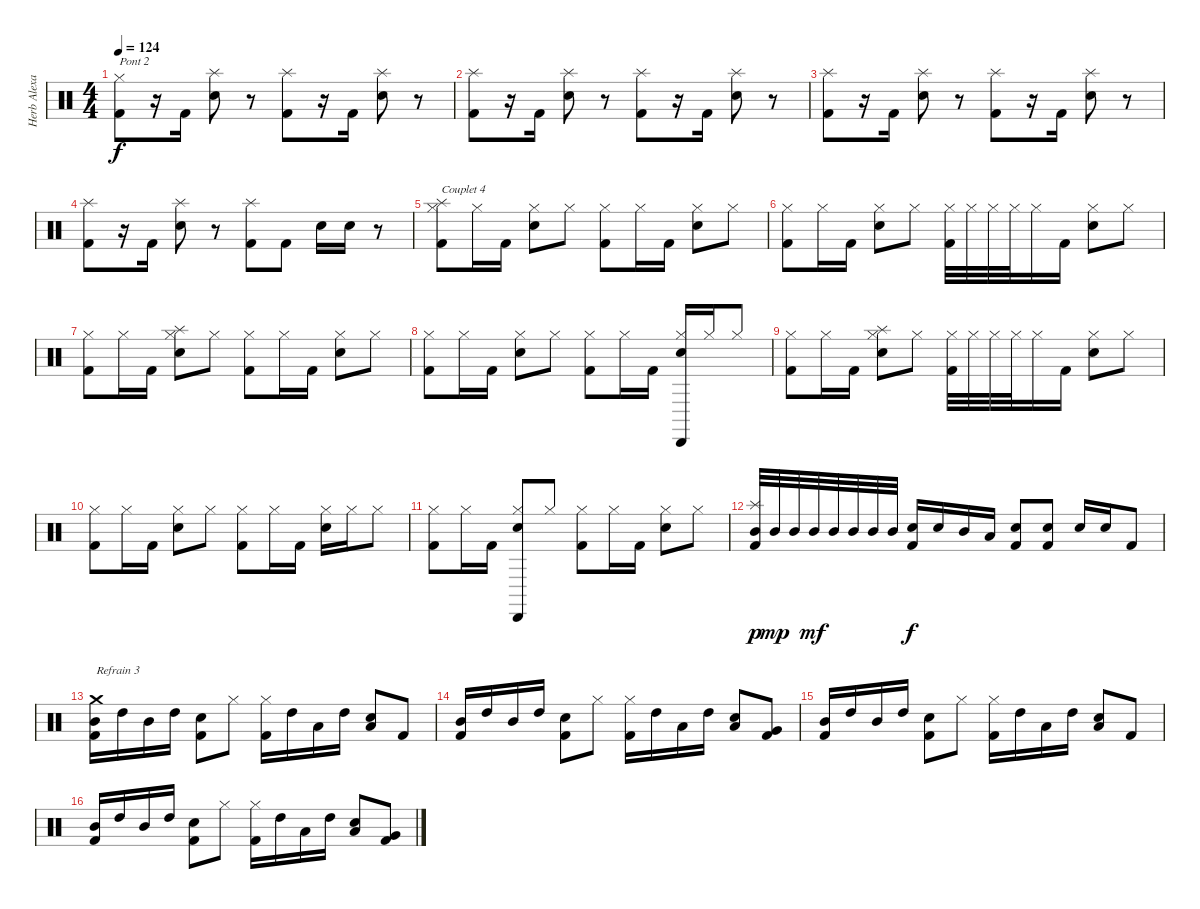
\track ("Herb Alexander" "Herb Alexa") {instrument percussion}
\staff {score}
\articulation defaults
\ts (4 4)
\tempo 124
\clef neutral
\ks c
("Hi-Hat (closed)" "Kick (hit) 2").8{txt "Pont 2" dy f} r.16 "Kick (hit) 2".16 ("Splash (hit)" "Electric Snare (hit)").8 r.8 ("Splash (hit)" "Kick (hit) 2").8 r.16 "Kick (hit) 2".16 ("Splash (hit)" "Electric Snare (hit)").8 r.8 |
("Splash (hit)" "Kick (hit) 2").8 r.16 "Kick (hit) 2".16 ("Splash (hit)" "Electric Snare (hit)").8 r.8 ("Splash (hit)" "Kick (hit) 2").8 r.16 "Kick (hit) 2".16 ("Splash (hit)" "Electric Snare (hit)").8 r.8 |
("Splash (hit)" "Kick (hit) 2").8 r.16 "Kick (hit) 2".16 ("Splash (hit)" "Electric Snare (hit)").8 r.8 ("Splash (hit)" "Kick (hit) 2").8 r.16 "Kick (hit) 2".16 ("Splash (hit)" "Electric Snare (hit)").8 r.8 |
("Splash (hit)" "Kick (hit) 2").8 r.16 "Kick (hit) 2".16 ("Splash (hit)" "Electric Snare (hit)").8 r.8 ("Splash (hit)" "Kick (hit) 2").8 "Kick (hit) 2".8 "Electric Snare (hit)".16 "Electric Snare (hit)".16 r.8 |
("Splash (hit)" "Hi-Hat (closed)" "Kick (hit) 2").8{txt "Couplet 4"} "Hi-Hat (closed)".16 "Kick (hit) 2".16 ("Electric Snare (hit)" "Hi-Hat (closed)").8 "Hi-Hat (closed)".8 ("Hi-Hat (closed)" "Kick (hit) 2").8 "Hi-Hat (closed)".16 "Kick (hit) 2".16 ("Electric Snare (hit)" "Hi-Hat (closed)").8 "Hi-Hat (closed)".8 |
("Hi-Hat (closed)" "Kick (hit) 2").8 "Hi-Hat (closed)".16 "Kick (hit) 2".16 ("Electric Snare (hit)" "Hi-Hat (closed)").8 "Hi-Hat (closed)".8 ("Hi-Hat (closed)" "Kick (hit) 2").32 "Hi-Hat (closed)".32 "Hi-Hat (closed)".32 "Hi-Hat (closed)".32 "Hi-Hat (closed)".16 "Kick (hit) 2".16 ("Electric Snare (hit)" "Hi-Hat (closed)").8 "Hi-Hat (closed)".8 |
("Hi-Hat (closed)" "Kick (hit) 2").8 "Hi-Hat (closed)".16 "Kick (hit) 2".16 ("Splash (hit)" "Electric Snare (hit)" "Hi-Hat (closed)").8 "Hi-Hat (closed)".8 ("Hi-Hat (closed)" "Kick (hit) 2").8 "Hi-Hat (closed)".16 "Kick (hit) 2".16 ("Electric Snare (hit)" "Hi-Hat (closed)").8 "Hi-Hat (closed)".8 |
("Hi-Hat (closed)" "Kick (hit) 2").8 "Hi-Hat (closed)".16 "Kick (hit) 2".16 ("Electric Snare (hit)" "Hi-Hat (closed)").8 "Hi-Hat (closed)".8 ("Hi-Hat (closed)" "Kick (hit) 2").8 "Hi-Hat (closed)".16 "Kick (hit) 2".16 ("Cabasa (hit)" "Electric Snare (hit)" "Hi-Hat (closed)").16 "Hi-Hat (closed)".16 "Hi-Hat (closed)".8 |
("Hi-Hat (closed)" "Kick (hit) 2").8 "Hi-Hat (closed)".16 "Kick (hit) 2".16 ("Splash (hit)" "Electric Snare (hit)" "Hi-Hat (closed)").8 "Hi-Hat (closed)".8 ("Hi-Hat (closed)" "Kick (hit) 2").32 "Hi-Hat (closed)".32 "Hi-Hat (closed)".32 "Hi-Hat (closed)".32 "Hi-Hat (closed)".16 "Kick (hit) 2".16 ("Electric Snare (hit)" "Hi-Hat (closed)").8 "Hi-Hat (closed)".8 |
("Hi-Hat (closed)" "Kick (hit) 2").8 "Hi-Hat (closed)".16 "Kick (hit) 2".16 ("Electric Snare (hit)" "Hi-Hat (closed)").8 "Hi-Hat (closed)".8 ("Hi-Hat (closed)" "Kick (hit) 2").8 "Hi-Hat (closed)".16 "Kick (hit) 2".16 ("Electric Snare (hit)" "Hi-Hat (closed)").16 "Hi-Hat (closed)".16 "Hi-Hat (closed)".8 |
("Hi-Hat (closed)" "Kick (hit) 2").8 "Hi-Hat (closed)".16 "Kick (hit) 2".16 ("Cabasa (hit)" "Electric Snare (hit)" "Hi-Hat (closed)").8 "Hi-Hat (closed)".8 ("Hi-Hat (closed)" "Kick (hit) 2").8 "Hi-Hat (closed)".16 "Kick (hit) 2".16 ("Electric Snare (hit)" "Hi-Hat (closed)").8 "Hi-Hat (closed)".8 |
("Splash (hit)" "Mid Tom (hit)" "Kick (hit) 2").32{dy p} "Mid Tom (hit)".32{dy mp} "Mid Tom (hit)".32 "Mid Tom (hit)".32{dy mf} "Mid Tom (hit)".32 "Mid Tom (hit)".32 "Mid Tom (hit)".32 "Mid Tom (hit)".32 ("Electric Snare (hit)" "Kick (hit) 2").16{dy f} "Electric Snare (hit)".16 "Mid Tom (hit)".16 "Low Tom (hit)".16 ("Electric Snare (hit)" "Kick (hit) 2").8 ("Electric Snare (hit)" "Kick (hit) 2").8 "Electric Snare (hit)".16 "Electric Snare (hit)".16 "Kick (hit) 2".8 |
("Crash medium (hit)" "Mid Tom (hit)" "Kick (hit) 2").16{txt "Refrain 3"} "High Tom (hit)".16 "Mid Tom (hit)".16 "High Tom (hit)".16 ("Electric Snare (hit)" "Kick (hit) 2").8 "Hi-Hat (closed)".8 ("Hi-Hat (closed)" "Kick (hit) 2").16 "High Tom (hit)".16 "Low Tom (hit)".16 "High Tom (hit)".16 ("Low Tom (hit)" "Electric Snare (hit)").8 "Kick (hit) 2".8 |
("Mid Tom (hit)" "Kick (hit) 2").16 "High Tom (hit)".16 "Mid Tom (hit)".16 "High Tom (hit)".16 ("Electric Snare (hit)" "Kick (hit) 2").8 "Hi-Hat (closed)".8 ("Hi-Hat (closed)" "Kick (hit) 2").16 "High Tom (hit)".16 "Low Tom (hit)".16 "High Tom (hit)".16 ("Low Tom (hit)" "Electric Snare (hit)").8 ("Very Low Tom (hit)" "Kick (hit) 2").8 |
("Mid Tom (hit)" "Kick (hit) 2").16 "High Tom (hit)".16 "Mid Tom (hit)".16 "High Tom (hit)".16 ("Electric Snare (hit)" "Kick (hit) 2").8 "Hi-Hat (closed)".8 ("Hi-Hat (closed)" "Kick (hit) 2").16 "High Tom (hit)".16 "Low Tom (hit)".16 "High Tom (hit)".16 ("Low Tom (hit)" "Electric Snare (hit)").8 "Kick (hit) 2".8 |
("Mid Tom (hit)" "Kick (hit) 2").16 "High Tom (hit)".16 "Mid Tom (hit)".16 "High Tom (hit)".16 ("Electric Snare (hit)" "Kick (hit) 2").8 "Hi-Hat (closed)".8 ("Hi-Hat (closed)" "Kick (hit) 2").16 "High Tom (hit)".16 "Low Tom (hit)".16 "High Tom (hit)".16 ("Low Tom (hit)" "Electric Snare (hit)").8 ("Very Low Tom (hit)" "Kick (hit) 2").8
